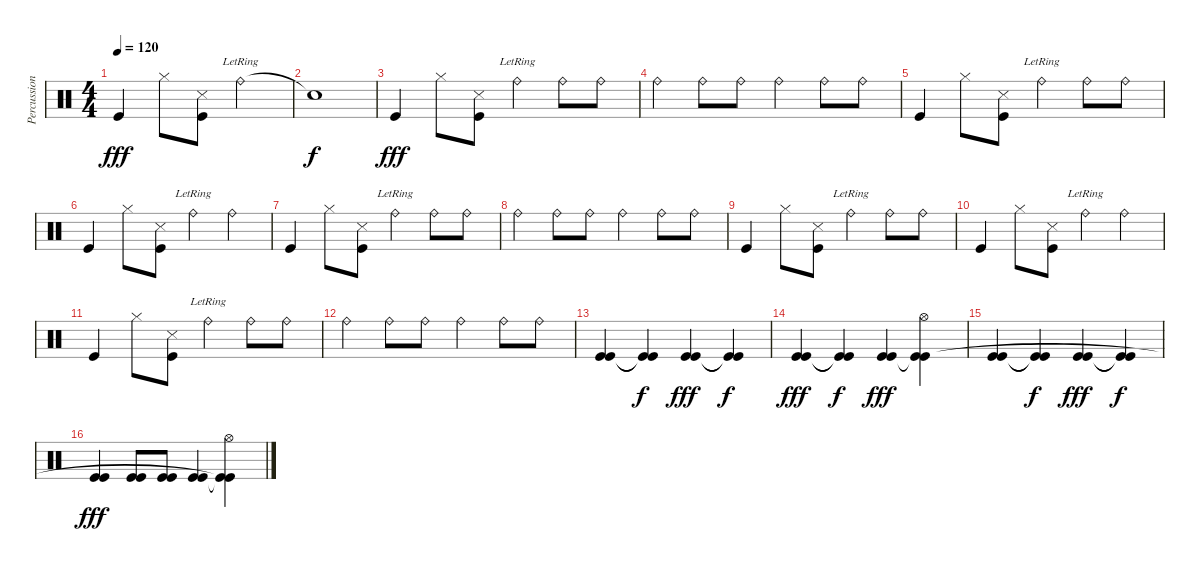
\track ("Percussions" "Percussion") {instrument percussion}
\staff {score}
\articulation defaults
\ts (4 4)
\tempo 120
\clef neutral
\ks c "Kick (hit)".4{dy fff} "Hi-Hat (closed)".8
("Snare (side stick) 3" "Kick (hit)").8 "Ride (bell)"{lr}.2 |
"Snare (hit)"{t}.1{dy f} |
"Kick (hit)".4{dy fff} "Hi-Hat (closed)".8 ("Snare (side stick) 3" "Kick (hit)").8 "Ride (bell)"{lr}.4 "Ride (bell)".8 "Ride (bell)".8 |
"Ride (bell)".4 "Ride (bell)".8 "Ride (bell)".8 "Ride (bell)".4 "Ride (bell)".8 "Ride (bell)".8 |
"Kick (hit)".4 "Hi-Hat (closed)".8 ("Snare (side stick) 3" "Kick (hit)").8 "Ride (bell)"{lr}.4 "Ride (bell)".8 "Ride (bell)".8 |
"Kick (hit)".4 "Hi-Hat (closed)".8 ("Snare (side stick) 3" "Kick (hit)").8 "Ride (bell)"{lr}.4 "Ride (bell)".4 |
"Kick (hit)".4 "Hi-Hat (closed)".8 ("Snare (side stick) 3" "Kick (hit)").8 "Ride (bell)"{lr}.4 "Ride (bell)".8 "Ride (bell)".8 |
"Ride (bell)".4 "Ride (bell)".8 "Ride (bell)".8 "Ride (bell)".4 "Ride (bell)".8 "Ride (bell)".8 |
"Kick (hit)".4 "Hi-Hat (closed)".8 ("Snare (side stick) 3" "Kick (hit)").8 "Ride (bell)"{lr}.4 "Ride (bell)".8 "Ride (bell)".8 |
"Kick (hit)".4 "Hi-Hat (closed)".8 ("Snare (side stick) 3" "Kick (hit)").8 "Ride (bell)"{lr}.4 "Ride (bell)".4 |
"Kick (hit)".4 "Hi-Hat (closed)".8 ("Snare (side stick) 3" "Kick (hit)").8 "Ride (bell)"{lr}.4 "Ride (bell)".8 "Ride (bell)".8 |
"Ride (bell)".4 "Ride (bell)".8 "Ride (bell)".8 "Ride (bell)".4 "Ride (bell)".8 "Ride (bell)".8 |
("Kick (hit)" "Kick (hit)").4 ("Kick (hit)"{t} "Kick (hit)"{t}).4{dy f} ("Kick (hit)" "Kick (hit)").4{dy fff} ("Kick (hit)"{t} "Kick (hit)"{t}).4{dy f} |
("Kick (hit)" "Kick (hit)").4{dy fff} ("Kick (hit)"{t} "Kick (hit)"{t}).4{dy f} ("Kick (hit)" "Kick (hit)").4{dy fff} ("Hi-Hat (open)" "Kick (hit)"{t} "Kick (hit)").4 |
("Kick (hit)" "Kick (hit)").4 ("Kick (hit)"{t} "Kick (hit)"{t}).4{dy f} ("Kick (hit)" "Kick (hit)").4{dy fff} ("Kick (hit)"{t} "Kick (hit)"{t}).4{dy f} |
("Kick (hit)" "Kick (hit)").4{dy fff} ("Kick (hit)" "Kick (hit)").8 ("Kick (hit)" "Kick (hit)").8 ("Kick (hit)" "Kick (hit)").4 ("Hi-Hat (open)" "Kick (hit)"{t} "Kick (hit)"{t}).4
